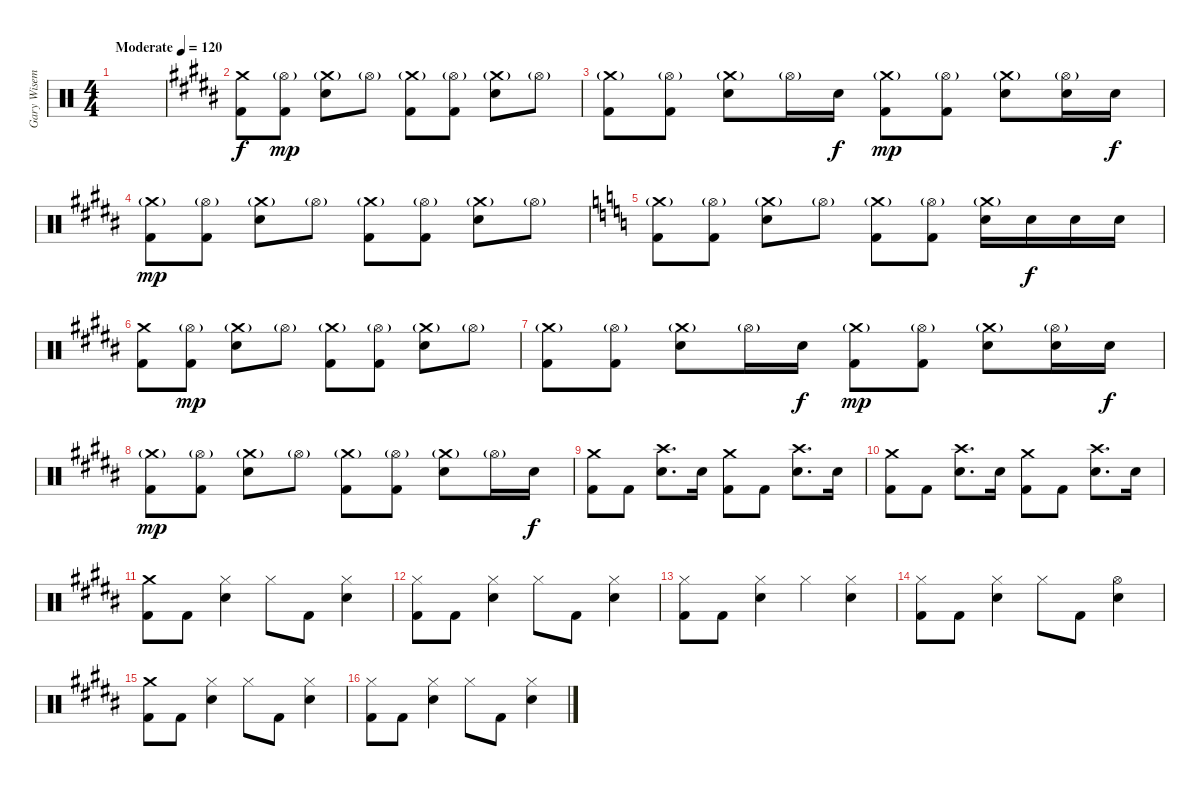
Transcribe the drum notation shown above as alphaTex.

\track ("Gary Wiseman - Drums" "Gary Wisem") {instrument percussion}
\staff {score}
\articulation defaults
\ts (4 4)
\tempo (120 "Moderate")
\clef neutral
\ks c
|
\ks b
("Crash medium (hit)" "Kick (hit) 2").8 ("Hi-Hat (open)"{g} "Kick (hit) 2").8{dy mp} ("Crash medium (hit)"{g} "Electric Snare (hit)").8 "Hi-Hat (open)"{g}.8 ("Crash medium (hit)"{g} "Kick (hit) 2").8 ("Hi-Hat (open)"{g} "Kick (hit) 2").8 ("Crash medium (hit)"{g} "Electric Snare (hit)").8 "Hi-Hat (open)"{g}.8 |
("Crash medium (hit)"{g} "Kick (hit) 2").8 ("Hi-Hat (open)"{g} "Kick (hit) 2").8 ("Crash medium (hit)"{g} "Electric Snare (hit)").8 "Hi-Hat (open)"{g}.16 "Electric Snare (hit)".16{dy f} ("Crash medium (hit)"{g} "Kick (hit) 2").8{dy mp} ("Hi-Hat (open)"{g} "Kick (hit) 2").8 ("Crash medium (hit)"{g} "Electric Snare (hit)").8 ("Hi-Hat (open)"{g} "Electric Snare (hit)").16 "Electric Snare (hit)".16{dy f} |
("Crash medium (hit)"{g} "Kick (hit) 2").8{dy mp} ("Hi-Hat (open)"{g} "Kick (hit) 2").8 ("Crash medium (hit)"{g} "Electric Snare (hit)").8 "Hi-Hat (open)"{g}.8 ("Crash medium (hit)"{g} "Kick (hit) 2").8 ("Hi-Hat (open)"{g} "Kick (hit) 2").8 ("Crash medium (hit)"{g} "Electric Snare (hit)").8 "Hi-Hat (open)"{g}.8 |
\ks c
("Crash medium (hit)"{g} "Kick (hit) 2").8 ("Hi-Hat (open)"{g} "Kick (hit) 2").8 ("Crash medium (hit)"{g} "Electric Snare (hit)").8 "Hi-Hat (open)"{g}.8 ("Crash medium (hit)"{g} "Kick (hit) 2").8 ("Hi-Hat (open)"{g} "Kick (hit) 2").8 ("Crash medium (hit)"{g} "Electric Snare (hit)").16 "Electric Snare (hit)".16{dy f} "Electric Snare (hit)".16 "Electric Snare (hit)".16 |
\ks b
("Crash medium (hit)" "Kick (hit) 2").8 ("Hi-Hat (open)"{g} "Kick (hit) 2").8{dy mp} ("Crash medium (hit)"{g} "Electric Snare (hit)").8 "Hi-Hat (open)"{g}.8 ("Crash medium (hit)"{g} "Kick (hit) 2").8 ("Hi-Hat (open)"{g} "Kick (hit) 2").8 ("Crash medium (hit)"{g} "Electric Snare (hit)").8 "Hi-Hat (open)"{g}.8 |
("Crash medium (hit)"{g} "Kick (hit) 2").8 ("Hi-Hat (open)"{g} "Kick (hit) 2").8 ("Crash medium (hit)"{g} "Electric Snare (hit)").8 "Hi-Hat (open)"{g}.16 "Electric Snare (hit)".16{dy f} ("Crash medium (hit)"{g} "Kick (hit) 2").8{dy mp} ("Hi-Hat (open)"{g} "Kick (hit) 2").8 ("Crash medium (hit)"{g} "Electric Snare (hit)").8 ("Hi-Hat (open)"{g} "Electric Snare (hit)").16 "Electric Snare (hit)".16{dy f} |
("Crash medium (hit)"{g} "Kick (hit) 2").8{dy mp} ("Hi-Hat (open)"{g} "Kick (hit) 2").8 ("Crash medium (hit)"{g} "Electric Snare (hit)").8 "Hi-Hat (open)"{g}.8 ("Crash medium (hit)"{g} "Kick (hit) 2").8 ("Hi-Hat (open)"{g} "Kick (hit) 2").8 ("Crash medium (hit)"{g} "Electric Snare (hit)").8 "Hi-Hat (open)"{g}.16 "Electric Snare (hit)".16{dy f} |
("Crash medium (hit)" "Kick (hit) 2").8 "Kick (hit) 2".8 ("Crash high (hit)" "Electric Snare (hit)").8{d} "Electric Snare (hit)".16 ("Crash medium (hit)" "Kick (hit) 2").8 "Kick (hit) 2".8 ("Crash high (hit)" "Electric Snare (hit)").8{d} "Electric Snare (hit)".16 |
("Crash medium (hit)" "Kick (hit) 2").8 "Kick (hit) 2".8 ("Crash high (hit)" "Electric Snare (hit)").8{d} "Electric Snare (hit)".16 ("Crash medium (hit)" "Kick (hit) 2").8 "Kick (hit) 2".8 ("Crash high (hit)" "Electric Snare (hit)").8{d} "Electric Snare (hit)".16 |
("Crash medium (hit)" "Kick (hit) 2").8 "Kick (hit) 2".8 ("Hi-Hat (closed)" "Electric Snare (hit)").4 "Hi-Hat (closed)".8 "Kick (hit) 2".8 ("Hi-Hat (closed)" "Electric Snare (hit)").4 |
("Hi-Hat (closed)" "Kick (hit) 2").8 "Kick (hit) 2".8 ("Hi-Hat (closed)" "Electric Snare (hit)").4 "Hi-Hat (closed)".8 "Kick (hit) 2".8 ("Hi-Hat (closed)" "Electric Snare (hit)").4 |
("Hi-Hat (closed)" "Kick (hit) 2").8 "Kick (hit) 2".8 ("Hi-Hat (closed)" "Electric Snare (hit)").4 "Hi-Hat (closed)".4 ("Hi-Hat (closed)" "Electric Snare (hit)").4 |
("Hi-Hat (closed)" "Kick (hit) 2").8 "Kick (hit) 2".8 ("Hi-Hat (closed)" "Electric Snare (hit)").4 "Hi-Hat (closed)".8 "Kick (hit) 2".8 ("Hi-Hat (open)" "Electric Snare (hit)").4 |
("Crash medium (hit)" "Kick (hit) 2").8 "Kick (hit) 2".8 ("Hi-Hat (closed)" "Electric Snare (hit)").4 "Hi-Hat (closed)".8 "Kick (hit) 2".8 ("Hi-Hat (closed)" "Electric Snare (hit)").4 |
("Hi-Hat (closed)" "Kick (hit) 2").8 "Kick (hit) 2".8 ("Hi-Hat (closed)" "Electric Snare (hit)").4 "Hi-Hat (closed)".8 "Kick (hit) 2".8 ("Hi-Hat (closed)" "Electric Snare (hit)").4
